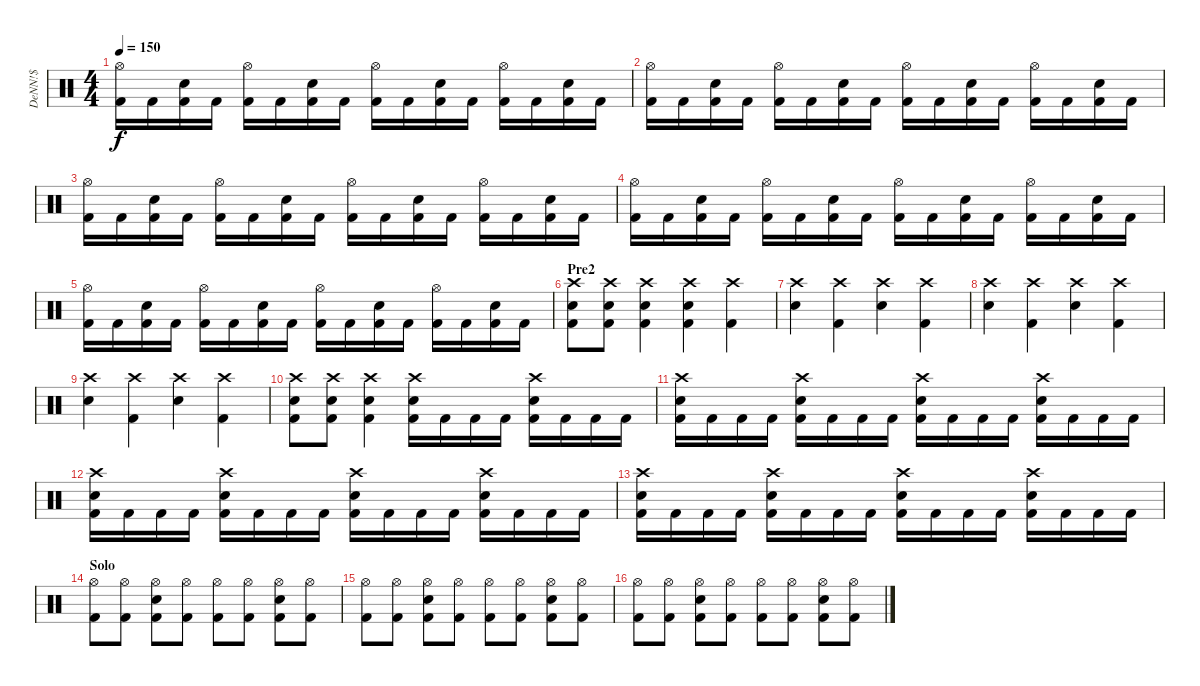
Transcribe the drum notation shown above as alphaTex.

\track ("DeNN!$" "DeNN!$") {instrument percussion}
\staff {score}
\articulation defaults
\ts (4 4)
\tempo 150
\clef neutral
\ks c
("Hi-Hat (open)" "Kick (hit) 2").16{dy f} "Kick (hit) 2".16 ("Snare (hit) 2" "Kick (hit) 2").16 "Kick (hit) 2".16 ("Hi-Hat (open)" "Kick (hit) 2").16 "Kick (hit) 2".16 ("Snare (hit) 2" "Kick (hit) 2").16 "Kick (hit) 2".16 ("Hi-Hat (open)" "Kick (hit) 2").16 "Kick (hit) 2".16 ("Snare (hit) 2" "Kick (hit) 2").16 "Kick (hit) 2".16 ("Hi-Hat (open)" "Kick (hit) 2").16 "Kick (hit) 2".16 ("Snare (hit) 2" "Kick (hit) 2").16 "Kick (hit) 2".16 |
("Hi-Hat (open)" "Kick (hit) 2").16 "Kick (hit) 2".16 ("Snare (hit) 2" "Kick (hit) 2").16 "Kick (hit) 2".16 ("Hi-Hat (open)" "Kick (hit) 2").16 "Kick (hit) 2".16 ("Snare (hit) 2" "Kick (hit) 2").16 "Kick (hit) 2".16 ("Hi-Hat (open)" "Kick (hit) 2").16 "Kick (hit) 2".16 ("Snare (hit) 2" "Kick (hit) 2").16 "Kick (hit) 2".16 ("Hi-Hat (open)" "Kick (hit) 2").16 "Kick (hit) 2".16 ("Snare (hit) 2" "Kick (hit) 2").16 "Kick (hit) 2".16 |
("Hi-Hat (open)" "Kick (hit) 2").16 "Kick (hit) 2".16 ("Snare (hit) 2" "Kick (hit) 2").16 "Kick (hit) 2".16 ("Hi-Hat (open)" "Kick (hit) 2").16 "Kick (hit) 2".16 ("Snare (hit) 2" "Kick (hit) 2").16 "Kick (hit) 2".16 ("Hi-Hat (open)" "Kick (hit) 2").16 "Kick (hit) 2".16 ("Snare (hit) 2" "Kick (hit) 2").16 "Kick (hit) 2".16 ("Hi-Hat (open)" "Kick (hit) 2").16 "Kick (hit) 2".16 ("Snare (hit) 2" "Kick (hit) 2").16 "Kick (hit) 2".16 |
("Hi-Hat (open)" "Kick (hit) 2").16 "Kick (hit) 2".16 ("Snare (hit) 2" "Kick (hit) 2").16 "Kick (hit) 2".16 ("Hi-Hat (open)" "Kick (hit) 2").16 "Kick (hit) 2".16 ("Snare (hit) 2" "Kick (hit) 2").16 "Kick (hit) 2".16 ("Hi-Hat (open)" "Kick (hit) 2").16 "Kick (hit) 2".16 ("Snare (hit) 2" "Kick (hit) 2").16 "Kick (hit) 2".16 ("Hi-Hat (open)" "Kick (hit) 2").16 "Kick (hit) 2".16 ("Snare (hit) 2" "Kick (hit) 2").16 "Kick (hit) 2".16 |
("Hi-Hat (open)" "Kick (hit) 2").16 "Kick (hit) 2".16 ("Snare (hit) 2" "Kick (hit) 2").16 "Kick (hit) 2".16 ("Hi-Hat (open)" "Kick (hit) 2").16 "Kick (hit) 2".16 ("Snare (hit) 2" "Kick (hit) 2").16 "Kick (hit) 2".16 ("Hi-Hat (open)" "Kick (hit) 2").16 "Kick (hit) 2".16 ("Snare (hit) 2" "Kick (hit) 2").16 "Kick (hit) 2".16 ("Hi-Hat (open)" "Kick (hit) 2").16 "Kick (hit) 2".16 ("Snare (hit) 2" "Kick (hit) 2").16 "Kick (hit) 2".16 |
\section ("" "Pre2")
("Crash high (hit)" "Snare (hit) 2" "Kick (hit) 2").8 ("Crash high (hit)" "Snare (hit) 2" "Kick (hit) 2").8 ("Crash high (hit)" "Snare (hit) 2" "Kick (hit) 2").4 ("Crash high (hit)" "Snare (hit) 2" "Kick (hit) 2").4 ("Crash high (hit)" "Kick (hit) 2").4 |
("Crash high (hit)" "Snare (hit) 2").4 ("Crash high (hit)" "Kick (hit) 2").4 ("Crash high (hit)" "Snare (hit) 2").4 ("Crash high (hit)" "Kick (hit) 2").4 |
("Crash high (hit)" "Snare (hit) 2").4 ("Crash high (hit)" "Kick (hit) 2").4 ("Crash high (hit)" "Snare (hit) 2").4 ("Crash high (hit)" "Kick (hit) 2").4 |
("Crash high (hit)" "Snare (hit) 2").4 ("Crash high (hit)" "Kick (hit) 2").4 ("Crash high (hit)" "Snare (hit) 2").4 ("Crash high (hit)" "Kick (hit) 2").4 |
("Crash high (hit)" "Snare (hit) 2" "Kick (hit) 2").8 ("Crash high (hit)" "Snare (hit) 2" "Kick (hit) 2").8 ("Crash high (hit)" "Snare (hit) 2" "Kick (hit) 2").4 ("Crash high (hit)" "Snare (hit) 2" "Kick (hit) 2").16 "Kick (hit) 2".16 "Kick (hit) 2".16 "Kick (hit) 2".16 ("Crash high (hit)" "Snare (hit) 2" "Kick (hit) 2").16 "Kick (hit) 2".16 "Kick (hit) 2".16 "Kick (hit) 2".16 |
("Crash high (hit)" "Snare (hit) 2" "Kick (hit) 2").16 "Kick (hit) 2".16 "Kick (hit) 2".16 "Kick (hit) 2".16 ("Crash high (hit)" "Snare (hit) 2" "Kick (hit) 2").16 "Kick (hit) 2".16 "Kick (hit) 2".16 "Kick (hit) 2".16 ("Crash high (hit)" "Snare (hit) 2" "Kick (hit) 2").16 "Kick (hit) 2".16 "Kick (hit) 2".16 "Kick (hit) 2".16 ("Crash high (hit)" "Snare (hit) 2" "Kick (hit) 2").16 "Kick (hit) 2".16 "Kick (hit) 2".16 "Kick (hit) 2".16 |
("Crash high (hit)" "Snare (hit) 2" "Kick (hit) 2").16 "Kick (hit) 2".16 "Kick (hit) 2".16 "Kick (hit) 2".16 ("Crash high (hit)" "Snare (hit) 2" "Kick (hit) 2").16 "Kick (hit) 2".16 "Kick (hit) 2".16 "Kick (hit) 2".16 ("Crash high (hit)" "Snare (hit) 2" "Kick (hit) 2").16 "Kick (hit) 2".16 "Kick (hit) 2".16 "Kick (hit) 2".16 ("Crash high (hit)" "Snare (hit) 2" "Kick (hit) 2").16 "Kick (hit) 2".16 "Kick (hit) 2".16 "Kick (hit) 2".16 |
("Crash high (hit)" "Snare (hit) 2" "Kick (hit) 2").16 "Kick (hit) 2".16 "Kick (hit) 2".16 "Kick (hit) 2".16 ("Crash high (hit)" "Snare (hit) 2" "Kick (hit) 2").16 "Kick (hit) 2".16 "Kick (hit) 2".16 "Kick (hit) 2".16 ("Crash high (hit)" "Snare (hit) 2" "Kick (hit) 2").16 "Kick (hit) 2".16 "Kick (hit) 2".16 "Kick (hit) 2".16 ("Crash high (hit)" "Snare (hit) 2" "Kick (hit) 2").16 "Kick (hit) 2".16 "Kick (hit) 2".16 "Kick (hit) 2".16 |
\section ("" "Solo")
("Hi-Hat (open)" "Kick (hit) 2").8 ("Hi-Hat (open)" "Kick (hit) 2").8 ("Hi-Hat (open)" "Snare (hit) 2" "Kick (hit) 2").8 ("Hi-Hat (open)" "Kick (hit) 2").8 ("Hi-Hat (open)" "Kick (hit) 2").8 ("Hi-Hat (open)" "Kick (hit) 2").8 ("Hi-Hat (open)" "Snare (hit) 2" "Kick (hit) 2").8 ("Hi-Hat (open)" "Kick (hit) 2").8 |
("Hi-Hat (open)" "Kick (hit) 2").8 ("Hi-Hat (open)" "Kick (hit) 2").8 ("Hi-Hat (open)" "Snare (hit) 2" "Kick (hit) 2").8 ("Hi-Hat (open)" "Kick (hit) 2").8 ("Hi-Hat (open)" "Kick (hit) 2").8 ("Hi-Hat (open)" "Kick (hit) 2").8 ("Hi-Hat (open)" "Snare (hit) 2" "Kick (hit) 2").8 ("Hi-Hat (open)" "Kick (hit) 2").8 |
("Hi-Hat (open)" "Kick (hit) 2").8 ("Hi-Hat (open)" "Kick (hit) 2").8 ("Hi-Hat (open)" "Snare (hit) 2" "Kick (hit) 2").8 ("Hi-Hat (open)" "Kick (hit) 2").8 ("Hi-Hat (open)" "Kick (hit) 2").8 ("Hi-Hat (open)" "Kick (hit) 2").8 ("Hi-Hat (open)" "Snare (hit) 2" "Kick (hit) 2").8 ("Hi-Hat (open)" "Kick (hit) 2").8
